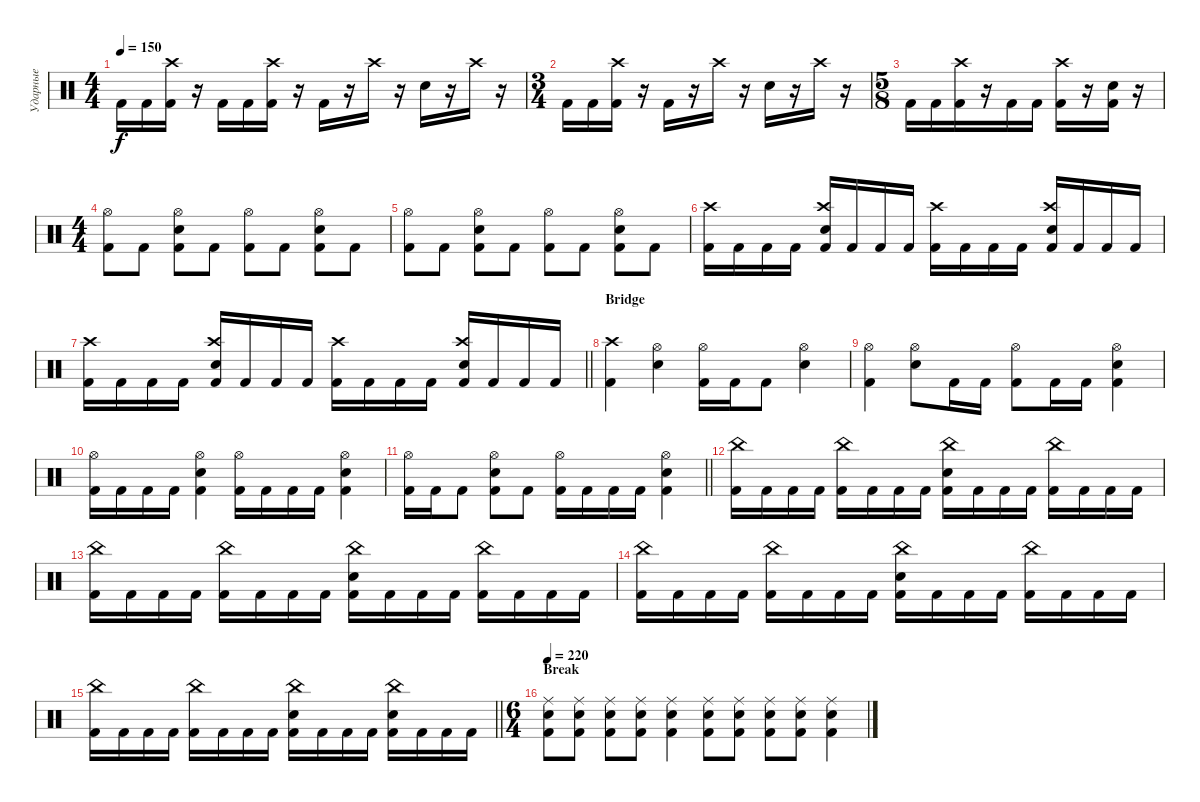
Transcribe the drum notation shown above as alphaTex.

\track ("Ударные" "Ударные") {instrument percussion}
\staff {score}
\articulation defaults
\ts (4 4)
\tempo 150
\clef neutral
\ks c "Kick (hit) 2".16{dy f} "Kick (hit) 2".16
("Crash high (hit)" "Kick (hit) 2").16 r.16 "Kick (hit) 2".16 "Kick (hit) 2".16 ("Crash high (hit)" "Kick (hit) 2").16 r.16 "Kick (hit) 2".16 r.16 "Crash high (hit)".16 r.16 "Electric Snare (hit)".16 r.16 "Crash high (hit)".16 r.16 |
\ts (3 4)
"Kick (hit) 2".16 "Kick (hit) 2".16 ("Crash high (hit)" "Kick (hit) 2").16 r.16 "Kick (hit) 2".16 r.16 "Crash high (hit)".16 r.16 "Electric Snare (hit)".16 r.16 "Crash high (hit)".16 r.16 |
\ts (5 8)
"Kick (hit) 2".16 "Kick (hit) 2".16 ("Crash high (hit)" "Kick (hit) 2").16 r.16 "Kick (hit) 2".16 "Kick (hit) 2".16 ("Crash high (hit)" "Kick (hit) 2").16 r.16 ("Electric Snare (hit)" "Kick (hit) 2").16 r.16 |
\ts (4 4)
("Hi-Hat (open)" "Kick (hit) 2").8 "Kick (hit) 2".8 ("Hi-Hat (open)" "Electric Snare (hit)" "Kick (hit) 2").8 "Kick (hit) 2".8 ("Hi-Hat (open)" "Kick (hit) 2").8 "Kick (hit) 2".8 ("Hi-Hat (open)" "Electric Snare (hit)" "Kick (hit) 2").8 "Kick (hit) 2".8 |
("Hi-Hat (open)" "Kick (hit) 2").8 "Kick (hit) 2".8 ("Hi-Hat (open)" "Electric Snare (hit)" "Kick (hit) 2").8 "Kick (hit) 2".8 ("Hi-Hat (open)" "Kick (hit) 2").8 "Kick (hit) 2".8 ("Hi-Hat (open)" "Electric Snare (hit)" "Kick (hit) 2").8 "Kick (hit) 2".8 |
("Crash high (hit)" "Kick (hit) 2").16 "Kick (hit) 2".16 "Kick (hit) 2".16 "Kick (hit) 2".16 ("Crash high (hit)" "Electric Snare (hit)" "Kick (hit) 2").16 "Kick (hit) 2".16 "Kick (hit) 2".16 "Kick (hit) 2".16 ("Crash high (hit)" "Kick (hit) 2").16 "Kick (hit) 2".16 "Kick (hit) 2".16 "Kick (hit) 2".16 ("Crash high (hit)" "Electric Snare (hit)" "Kick (hit) 2").16 "Kick (hit) 2".16 "Kick (hit) 2".16 "Kick (hit) 2".16 |
\barLineRight lightlight
("Crash high (hit)" "Kick (hit) 2").16 "Kick (hit) 2".16 "Kick (hit) 2".16 "Kick (hit) 2".16 ("Crash high (hit)" "Electric Snare (hit)" "Kick (hit) 2").16 "Kick (hit) 2".16 "Kick (hit) 2".16 "Kick (hit) 2".16 ("Crash high (hit)" "Kick (hit) 2").16 "Kick (hit) 2".16 "Kick (hit) 2".16 "Kick (hit) 2".16 ("Crash high (hit)" "Electric Snare (hit)" "Kick (hit) 2").16 "Kick (hit) 2".16 "Kick (hit) 2".16 "Kick (hit) 2".16 |
\section ("" "Bridge")
("Crash high (hit)" "Kick (hit) 2").4 ("Hi-Hat (open)" "Electric Snare (hit)").4 ("Hi-Hat (open)" "Kick (hit) 2").16 "Kick (hit) 2".16 "Kick (hit) 2".8 ("Hi-Hat (open)" "Electric Snare (hit)").4 |
("Hi-Hat (open)" "Kick (hit) 2").4 ("Hi-Hat (open)" "Electric Snare (hit)").8 "Kick (hit) 2".16 "Kick (hit) 2".16 ("Hi-Hat (open)" "Kick (hit) 2").8 "Kick (hit) 2".16 "Kick (hit) 2".16 ("Hi-Hat (open)" "Electric Snare (hit)" "Kick (hit) 2").4 |
("Hi-Hat (open)" "Kick (hit) 2").16 "Kick (hit) 2".16 "Kick (hit) 2".16 "Kick (hit) 2".16 ("Hi-Hat (open)" "Electric Snare (hit)" "Kick (hit) 2").4 ("Hi-Hat (open)" "Kick (hit) 2").16 "Kick (hit) 2".16 "Kick (hit) 2".16 "Kick (hit) 2".16 ("Hi-Hat (open)" "Electric Snare (hit)" "Kick (hit) 2").4 |
\barLineRight lightlight
("Hi-Hat (open)" "Kick (hit) 2").16 "Kick (hit) 2".16 "Kick (hit) 2".8 ("Hi-Hat (open)" "Electric Snare (hit)" "Kick (hit) 2").8 "Kick (hit) 2".8 ("Hi-Hat (open)" "Kick (hit) 2").16 "Kick (hit) 2".16 "Kick (hit) 2".16 "Kick (hit) 2".16 ("Hi-Hat (open)" "Electric Snare (hit)" "Kick (hit) 2").4 |
("China (hit)" "Kick (hit) 2").16 "Kick (hit) 2".16 "Kick (hit) 2".16 "Kick (hit) 2".16 ("China (hit)" "Kick (hit) 2").16 "Kick (hit) 2".16 "Kick (hit) 2".16 "Kick (hit) 2".16 ("China (hit)" "Electric Snare (hit)" "Kick (hit) 2").16 "Kick (hit) 2".16 "Kick (hit) 2".16 "Kick (hit) 2".16 ("China (hit)" "Kick (hit) 2").16 "Kick (hit) 2".16 "Kick (hit) 2".16 "Kick (hit) 2".16 |
("China (hit)" "Kick (hit) 2").16 "Kick (hit) 2".16 "Kick (hit) 2".16 "Kick (hit) 2".16 ("China (hit)" "Kick (hit) 2").16 "Kick (hit) 2".16 "Kick (hit) 2".16 "Kick (hit) 2".16 ("China (hit)" "Electric Snare (hit)" "Kick (hit) 2").16 "Kick (hit) 2".16 "Kick (hit) 2".16 "Kick (hit) 2".16 ("China (hit)" "Kick (hit) 2").16 "Kick (hit) 2".16 "Kick (hit) 2".16 "Kick (hit) 2".16 |
("China (hit)" "Kick (hit) 2").16 "Kick (hit) 2".16 "Kick (hit) 2".16 "Kick (hit) 2".16 ("China (hit)" "Kick (hit) 2").16 "Kick (hit) 2".16 "Kick (hit) 2".16 "Kick (hit) 2".16 ("China (hit)" "Electric Snare (hit)" "Kick (hit) 2").16 "Kick (hit) 2".16 "Kick (hit) 2".16 "Kick (hit) 2".16 ("China (hit)" "Kick (hit) 2").16 "Kick (hit) 2".16 "Kick (hit) 2".16 "Kick (hit) 2".16 |
\barLineRight lightlight
("China (hit)" "Kick (hit) 2").16 "Kick (hit) 2".16 "Kick (hit) 2".16 "Kick (hit) 2".16 ("China (hit)" "Kick (hit) 2").16 "Kick (hit) 2".16 "Kick (hit) 2".16 "Kick (hit) 2".16 ("China (hit)" "Electric Snare (hit)" "Kick (hit) 2").16 "Kick (hit) 2".16 "Kick (hit) 2".16 "Kick (hit) 2".16 ("China (hit)" "Electric Snare (hit)" "Kick (hit) 2").16 "Kick (hit) 2".16 "Kick (hit) 2".16 "Kick (hit) 2".16 |
\ts (6 4)
\section ("" "Break")
\tempo 220
("Ride (middle)" "Electric Snare (hit)" "Kick (hit) 2").8 ("Ride (middle)" "Electric Snare (hit)" "Kick (hit) 2").8 ("Ride (middle)" "Electric Snare (hit)" "Kick (hit) 2").8 ("Ride (middle)" "Electric Snare (hit)" "Kick (hit) 2").8 ("Ride (middle)" "Electric Snare (hit)" "Kick (hit) 2").4 ("Ride (middle)" "Electric Snare (hit)" "Kick (hit) 2").8 ("Ride (middle)" "Electric Snare (hit)" "Kick (hit) 2").8 ("Ride (middle)" "Electric Snare (hit)" "Kick (hit) 2").8 ("Ride (middle)" "Electric Snare (hit)" "Kick (hit) 2").8 ("Ride (middle)" "Electric Snare (hit)" "Kick (hit) 2").4
